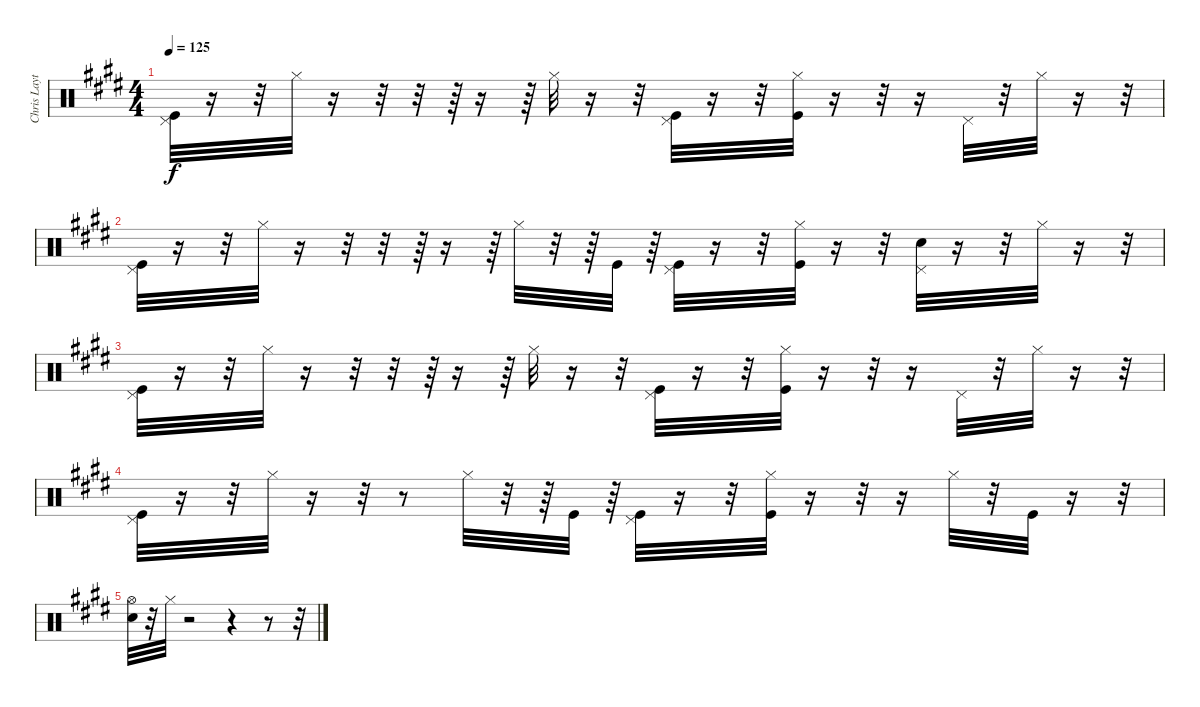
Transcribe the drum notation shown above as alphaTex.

\track ("Chris Layton" "Chris Layt") {instrument percussion}
\staff {score}
\articulation defaults
\ts (4 4)
\tempo 125
\clef neutral
\ks e
("Pedal Hi-Hat (hit)" "Kick (hit)").32{dy f} r.16 r.32 "Hi-Hat (closed)".32 r.16 r.32 r.32 r.64 r.16 r.64 "Hi-Hat (closed)".32 r.16 r.32 ("Kick (hit)" "Pedal Hi-Hat (hit)").32 r.16 r.32 ("Kick (hit)" "Hi-Hat (closed)").32 r.16 r.32 r.16 "Pedal Hi-Hat (hit)".32 r.32 "Hi-Hat (closed)".32 r.16 r.32 |
("Pedal Hi-Hat (hit)" "Kick (hit)").32 r.16 r.32 "Hi-Hat (closed)".32 r.16 r.32 r.32 r.64 r.16 r.64 "Hi-Hat (closed)".32 r.32 r.64 "Kick (hit)".32 r.64 ("Kick (hit)" "Pedal Hi-Hat (hit)").32 r.16 r.32 ("Kick (hit)" "Hi-Hat (closed)").32 r.16 r.32 ("Snare (hit) 2" "Pedal Hi-Hat (hit)").32 r.16 r.32 "Hi-Hat (closed)".32 r.16 r.32 |
("Pedal Hi-Hat (hit)" "Kick (hit)").32 r.16 r.32 "Hi-Hat (closed)".32 r.16 r.32 r.32 r.64 r.16 r.64 "Hi-Hat (closed)".32 r.16 r.32 ("Kick (hit)" "Pedal Hi-Hat (hit)").32 r.16 r.32 ("Kick (hit)" "Hi-Hat (closed)").32 r.16 r.32 r.16 "Pedal Hi-Hat (hit)".32 r.32 "Hi-Hat (closed)".32 r.16 r.32 |
("Pedal Hi-Hat (hit)" "Kick (hit)").32 r.16 r.32 "Hi-Hat (closed)".32 r.16 r.32 r.8 "Hi-Hat (closed)".32 r.32 r.64 "Kick (hit)".32 r.64 ("Kick (hit)" "Pedal Hi-Hat (hit)").32 r.16 r.32 ("Kick (hit)" "Hi-Hat (closed)").32 r.16 r.32 r.16 "Hi-Hat (closed)".32 r.32 "Kick (hit)".32 r.16 r.32 |
("Hi-Hat (open)" "Snare (hit) 2").32 r.32 "Hi-Hat (closed)".32 r.2 r.4 r.8 r.32
